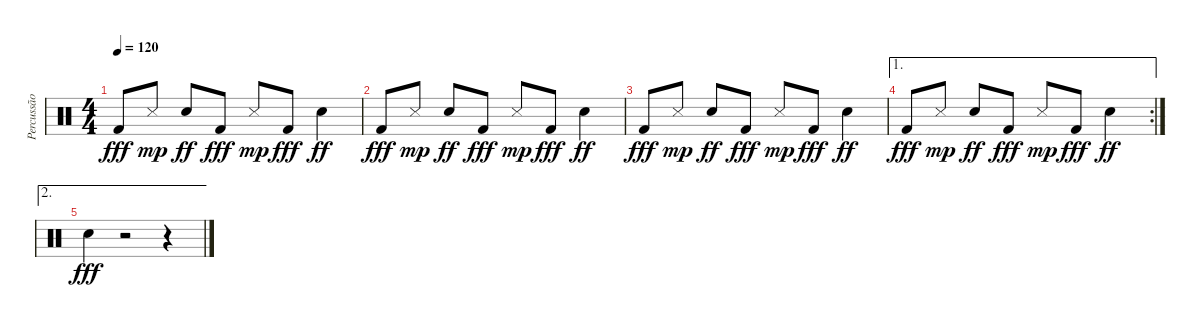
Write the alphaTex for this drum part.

\track ("Percussão" "Percussão") {instrument percussion}
\staff {score}
\articulation defaults
\ts (4 4)
\tempo 120
\clef neutral
\ks c "Kick (hit) 2".8{dy fff} "Metronome (hit)".8{dy mp} "Hand Clap (hit)".8{dy ff} "Kick (hit) 2".8{dy fff} "Metronome (hit)".8{dy mp} "Kick (hit) 2".8{dy fff} "Hand Clap (hit)".4{dy ff}
|
"Kick (hit) 2".8{dy fff} "Metronome (hit)".8{dy mp} "Hand Clap (hit)".8{dy ff} "Kick (hit) 2".8{dy fff} "Metronome (hit)".8{dy mp} "Kick (hit) 2".8{dy fff} "Hand Clap (hit)".4{dy ff} |
"Kick (hit) 2".8{dy fff} "Metronome (hit)".8{dy mp} "Hand Clap (hit)".8{dy ff} "Kick (hit) 2".8{dy fff} "Metronome (hit)".8{dy mp} "Kick (hit) 2".8{dy fff} "Hand Clap (hit)".4{dy ff} |
\ae 1
\rc 2 "Kick (hit) 2".8{dy fff} "Metronome (hit)".8{dy mp} "Hand Clap (hit)".8{dy ff} "Kick (hit) 2".8{dy fff} "Metronome (hit)".8{dy mp} "Kick (hit) 2".8{dy fff} "Hand Clap (hit)".4{dy ff}
|
\ae 2 "Hand Clap (hit)".4{dy fff}
r.2 r.4
